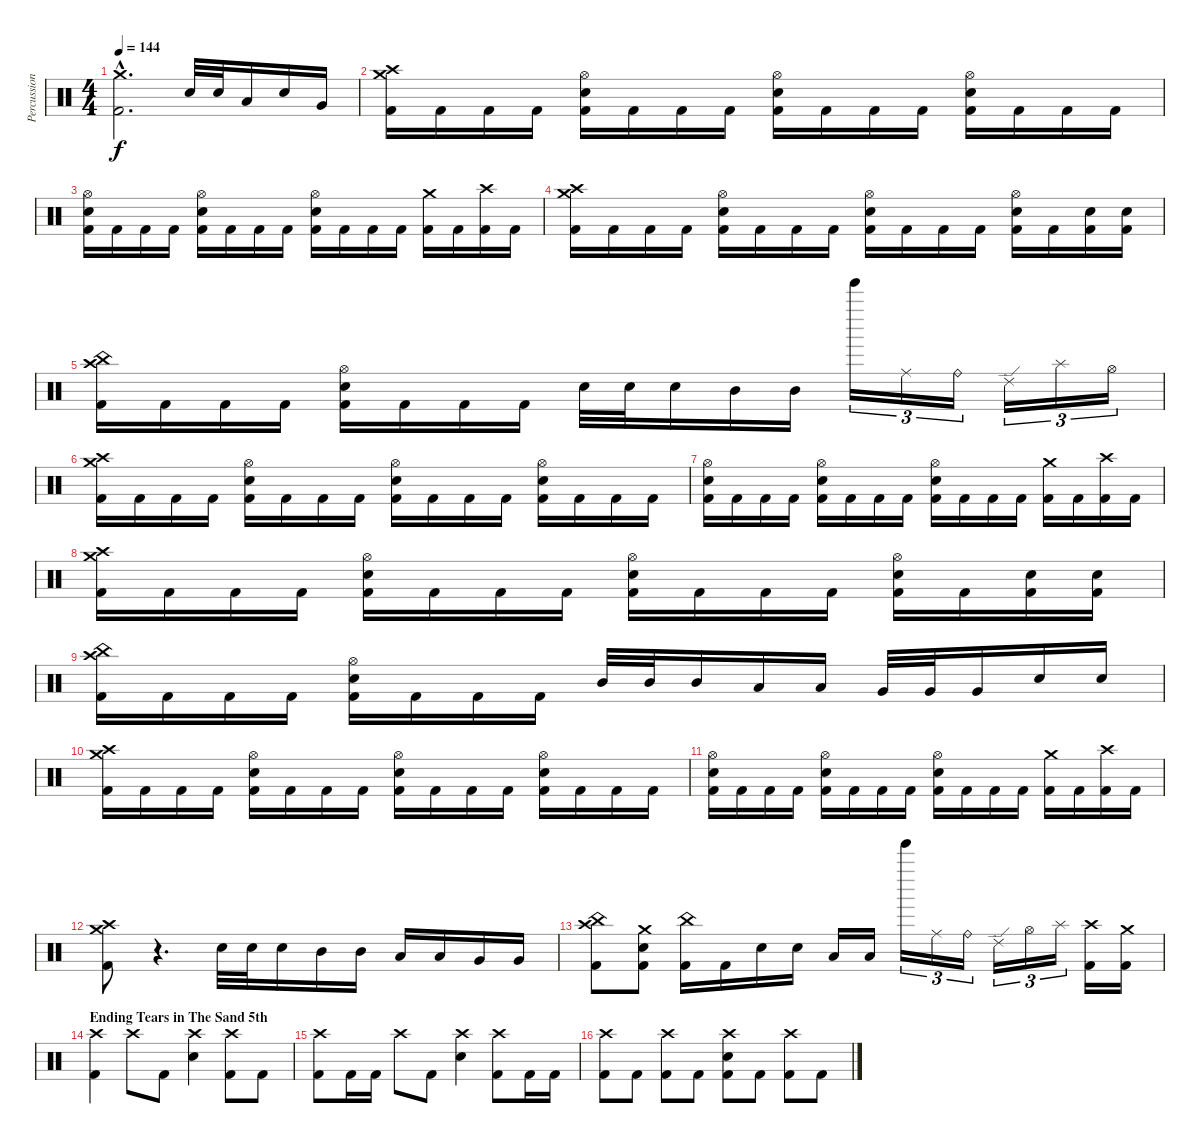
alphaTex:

\track ("Percussion" "Percussion") {instrument percussion}
\staff {score}
\articulation defaults
\ts (4 4)
\tempo 144
\clef neutral
\ks c
("Crash medium (hit)"{hac} "Kick (hit) 2"{hac}).2{d dy f} "Electric Snare (hit)".32 "Electric Snare (hit)".32 "Low Tom (hit)".16 "Electric Snare (hit)".16 "Very Low Tom (hit)".16 |
("Crash medium (hit)" "Crash high (hit)" "Kick (hit) 2").16 "Kick (hit) 2".16 "Kick (hit) 2".16 "Kick (hit) 2".16 ("Hi-Hat (open)" "Electric Snare (hit)" "Kick (hit) 2").16 "Kick (hit) 2".16 "Kick (hit) 2".16 "Kick (hit) 2".16 ("Hi-Hat (open)" "Electric Snare (hit)" "Kick (hit) 2").16 "Kick (hit) 2".16 "Kick (hit) 2".16 "Kick (hit) 2".16 ("Hi-Hat (open)" "Electric Snare (hit)" "Kick (hit) 2").16 "Kick (hit) 2".16 "Kick (hit) 2".16 "Kick (hit) 2".16 |
("Hi-Hat (open)" "Electric Snare (hit)" "Kick (hit) 2").16 "Kick (hit) 2".16 "Kick (hit) 2".16 "Kick (hit) 2".16 ("Hi-Hat (open)" "Electric Snare (hit)" "Kick (hit) 2").16 "Kick (hit) 2".16 "Kick (hit) 2".16 "Kick (hit) 2".16 ("Hi-Hat (open)" "Electric Snare (hit)" "Kick (hit) 2").16 "Kick (hit) 2".16 "Kick (hit) 2".16 "Kick (hit) 2".16 ("Crash medium (hit)" "Kick (hit) 2").16 "Kick (hit) 2".16 ("Crash high (hit)" "Kick (hit) 2").16 "Kick (hit) 2".16 |
("Crash medium (hit)" "Crash high (hit)" "Kick (hit) 2").16 "Kick (hit) 2".16 "Kick (hit) 2".16 "Kick (hit) 2".16 ("Hi-Hat (open)" "Electric Snare (hit)" "Kick (hit) 2").16 "Kick (hit) 2".16 "Kick (hit) 2".16 "Kick (hit) 2".16 ("Hi-Hat (open)" "Electric Snare (hit)" "Kick (hit) 2").16 "Kick (hit) 2".16 "Kick (hit) 2".16 "Kick (hit) 2".16 ("Hi-Hat (open)" "Electric Snare (hit)" "Kick (hit) 2").16 "Kick (hit) 2".16 ("Electric Snare (hit)" "Kick (hit) 2").16 ("Electric Snare (hit)" "Kick (hit) 2").16 |
("Crash high (hit)" "China (hit)" "Kick (hit) 2").16 "Kick (hit) 2".16 "Kick (hit) 2".16 "Kick (hit) 2".16 ("Hi-Hat (open)" "Electric Snare (hit)" "Kick (hit) 2").16 "Kick (hit) 2".16 "Kick (hit) 2".16 "Kick (hit) 2".16 "Electric Snare (hit)".32 "Electric Snare (hit)".32 "Electric Snare (hit)".16 "Mid Tom (hit)".16 "Mid Tom (hit)".16 "Tinkle Bell (hit)".16{tu (3 2)} "Ride (middle)".16{tu (3 2)} "Ride (bell)".16{tu (3 2)} "Ride (edge) 2".16{tu (3 2)} "Splash (hit)".16{tu (3 2)} "Hi-Hat (open)".16{tu (3 2)} |
("Crash medium (hit)" "Crash high (hit)" "Kick (hit) 2").16 "Kick (hit) 2".16 "Kick (hit) 2".16 "Kick (hit) 2".16 ("Hi-Hat (open)" "Electric Snare (hit)" "Kick (hit) 2").16 "Kick (hit) 2".16 "Kick (hit) 2".16 "Kick (hit) 2".16 ("Hi-Hat (open)" "Electric Snare (hit)" "Kick (hit) 2").16 "Kick (hit) 2".16 "Kick (hit) 2".16 "Kick (hit) 2".16 ("Hi-Hat (open)" "Electric Snare (hit)" "Kick (hit) 2").16 "Kick (hit) 2".16 "Kick (hit) 2".16 "Kick (hit) 2".16 |
("Hi-Hat (open)" "Electric Snare (hit)" "Kick (hit) 2").16 "Kick (hit) 2".16 "Kick (hit) 2".16 "Kick (hit) 2".16 ("Hi-Hat (open)" "Electric Snare (hit)" "Kick (hit) 2").16 "Kick (hit) 2".16 "Kick (hit) 2".16 "Kick (hit) 2".16 ("Hi-Hat (open)" "Electric Snare (hit)" "Kick (hit) 2").16 "Kick (hit) 2".16 "Kick (hit) 2".16 "Kick (hit) 2".16 ("Crash medium (hit)" "Kick (hit) 2").16 "Kick (hit) 2".16 ("Crash high (hit)" "Kick (hit) 2").16 "Kick (hit) 2".16 |
("Crash medium (hit)" "Crash high (hit)" "Kick (hit) 2").16 "Kick (hit) 2".16 "Kick (hit) 2".16 "Kick (hit) 2".16 ("Hi-Hat (open)" "Electric Snare (hit)" "Kick (hit) 2").16 "Kick (hit) 2".16 "Kick (hit) 2".16 "Kick (hit) 2".16 ("Hi-Hat (open)" "Electric Snare (hit)" "Kick (hit) 2").16 "Kick (hit) 2".16 "Kick (hit) 2".16 "Kick (hit) 2".16 ("Hi-Hat (open)" "Electric Snare (hit)" "Kick (hit) 2").16 "Kick (hit) 2".16 ("Electric Snare (hit)" "Kick (hit) 2").16 ("Electric Snare (hit)" "Kick (hit) 2").16 |
("Crash high (hit)" "China (hit)" "Kick (hit) 2").16 "Kick (hit) 2".16 "Kick (hit) 2".16 "Kick (hit) 2".16 ("Hi-Hat (open)" "Electric Snare (hit)" "Kick (hit) 2").16 "Kick (hit) 2".16 "Kick (hit) 2".16 "Kick (hit) 2".16 "Mid Tom (hit)".32 "Mid Tom (hit)".32 "Mid Tom (hit)".16 "Low Tom (hit)".16 "Low Tom (hit)".16 "Very Low Tom (hit)".32 "Very Low Tom (hit)".32 "Very Low Tom (hit)".16 "Electric Snare (hit)".16 "Electric Snare (hit)".16 |
("Crash medium (hit)" "Crash high (hit)" "Kick (hit) 2").16 "Kick (hit) 2".16 "Kick (hit) 2".16 "Kick (hit) 2".16 ("Hi-Hat (open)" "Electric Snare (hit)" "Kick (hit) 2").16 "Kick (hit) 2".16 "Kick (hit) 2".16 "Kick (hit) 2".16 ("Hi-Hat (open)" "Electric Snare (hit)" "Kick (hit) 2").16 "Kick (hit) 2".16 "Kick (hit) 2".16 "Kick (hit) 2".16 ("Hi-Hat (open)" "Electric Snare (hit)" "Kick (hit) 2").16 "Kick (hit) 2".16 "Kick (hit) 2".16 "Kick (hit) 2".16 |
("Hi-Hat (open)" "Electric Snare (hit)" "Kick (hit) 2").16 "Kick (hit) 2".16 "Kick (hit) 2".16 "Kick (hit) 2".16 ("Hi-Hat (open)" "Electric Snare (hit)" "Kick (hit) 2").16 "Kick (hit) 2".16 "Kick (hit) 2".16 "Kick (hit) 2".16 ("Hi-Hat (open)" "Electric Snare (hit)" "Kick (hit) 2").16 "Kick (hit) 2".16 "Kick (hit) 2".16 "Kick (hit) 2".16 ("Crash medium (hit)" "Kick (hit) 2").16 "Kick (hit) 2".16 ("Crash high (hit)" "Kick (hit) 2").16 "Kick (hit) 2".16 |
("Crash medium (hit)" "Crash high (hit)" "Kick (hit) 2").8 r.4{d} "Electric Snare (hit)".32 "Electric Snare (hit)".32 "Electric Snare (hit)".16 "Mid Tom (hit)".16 "Mid Tom (hit)".16 "Low Tom (hit)".16 "Low Tom (hit)".16 "Very Low Tom (hit)".16 "Very Low Tom (hit)".16 |
("Crash high (hit)" "China (hit)" "Kick (hit) 2").8 ("Crash medium (hit)" "Electric Snare (hit)" "Kick (hit) 2").8 ("China (hit)" "Kick (hit) 2").16 "Kick (hit) 2".16 "Electric Snare (hit)".16 "Electric Snare (hit)".16 "Low Tom (hit)".16 "Low Tom (hit)".16 "Tinkle Bell (hit)".16{tu (3 2)} "Ride (middle)".16{tu (3 2)} "Ride (bell)".16{tu (3 2)} "Ride (edge) 2".16{tu (3 2)} "Hi-Hat (open)".16{tu (3 2)} "Splash (hit)".16{tu (3 2)} ("Crash high (hit)" "Kick (hit) 2").16 ("Crash medium (hit)" "Kick (hit) 2").16 |
\section ("" "Ending Tears in The Sand 5th")
("Crash high (hit)" "Kick (hit) 2").4 "Crash high (hit)".8 "Kick (hit) 2".8 ("Crash high (hit)" "Electric Snare (hit)").4 ("Crash high (hit)" "Kick (hit) 2").8 "Kick (hit) 2".8 |
("Crash high (hit)" "Kick (hit) 2").8 "Kick (hit) 2".16 "Kick (hit) 2".16 "Crash high (hit)".8 "Kick (hit) 2".8 ("Crash high (hit)" "Electric Snare (hit)").4 ("Crash high (hit)" "Kick (hit) 2").8 "Kick (hit) 2".16 "Kick (hit) 2".16 |
("Crash high (hit)" "Kick (hit) 2").8 "Kick (hit) 2".8 ("Crash high (hit)" "Kick (hit) 2").8 "Kick (hit) 2".8 ("Crash high (hit)" "Electric Snare (hit)" "Kick (hit) 2").8 "Kick (hit) 2".8 ("Crash high (hit)" "Kick (hit) 2").8 "Kick (hit) 2".8
